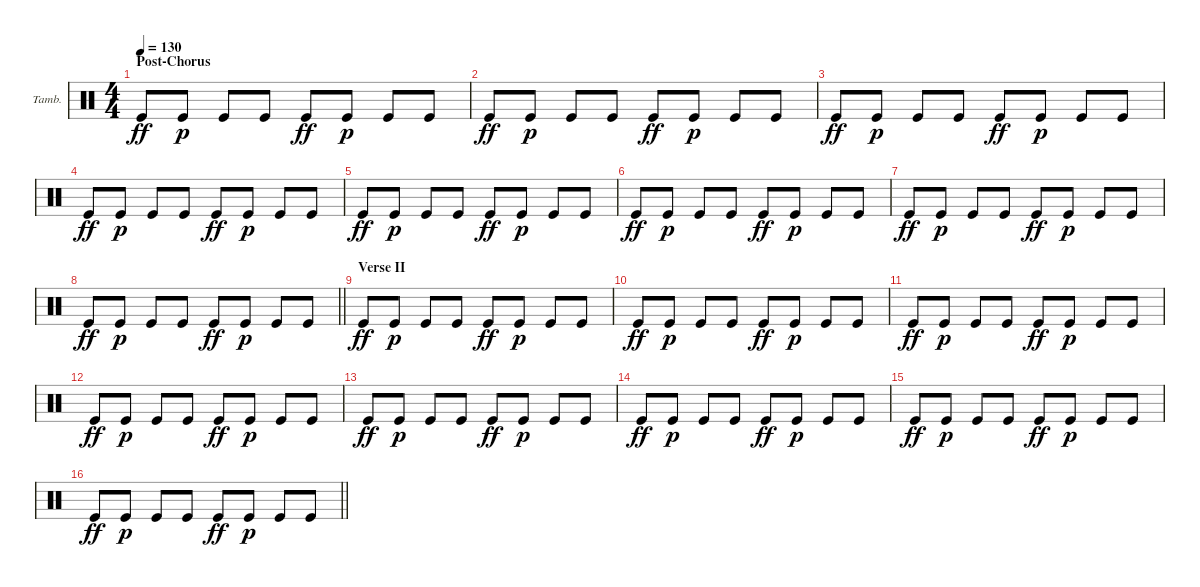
\bracketExtendMode groupsimilarinstruments
\firstSystemTrackNameOrientation horizontal
\otherSystemsTrackNameOrientation horizontal
\track ("Tambourine" "Tamb.") {instrument percussion}
\staff {score}
\articulation defaults
\ts (4 4)
\section ("" "Post-Chorus")
\tempo 130
\clef neutral
\ks c "Kick (hit)".8{dy ff} "Kick (hit)".8{dy p} "Kick (hit)".8 "Kick (hit)".8 "Kick (hit)".8{dy ff} "Kick (hit)".8{dy p} "Kick (hit)".8 "Kick (hit)".8
|
"Kick (hit)".8{dy ff} "Kick (hit)".8{dy p} "Kick (hit)".8 "Kick (hit)".8 "Kick (hit)".8{dy ff} "Kick (hit)".8{dy p} "Kick (hit)".8 "Kick (hit)".8 |
"Kick (hit)".8{dy ff} "Kick (hit)".8{dy p} "Kick (hit)".8 "Kick (hit)".8 "Kick (hit)".8{dy ff} "Kick (hit)".8{dy p} "Kick (hit)".8 "Kick (hit)".8 |
"Kick (hit)".8{dy ff} "Kick (hit)".8{dy p} "Kick (hit)".8 "Kick (hit)".8 "Kick (hit)".8{dy ff} "Kick (hit)".8{dy p} "Kick (hit)".8 "Kick (hit)".8 |
"Kick (hit)".8{dy ff} "Kick (hit)".8{dy p} "Kick (hit)".8 "Kick (hit)".8 "Kick (hit)".8{dy ff} "Kick (hit)".8{dy p} "Kick (hit)".8 "Kick (hit)".8 |
"Kick (hit)".8{dy ff} "Kick (hit)".8{dy p} "Kick (hit)".8 "Kick (hit)".8 "Kick (hit)".8{dy ff} "Kick (hit)".8{dy p} "Kick (hit)".8 "Kick (hit)".8 |
"Kick (hit)".8{dy ff} "Kick (hit)".8{dy p} "Kick (hit)".8 "Kick (hit)".8 "Kick (hit)".8{dy ff} "Kick (hit)".8{dy p} "Kick (hit)".8 "Kick (hit)".8 |
\barLineRight lightlight "Kick (hit)".8{dy ff} "Kick (hit)".8{dy p} "Kick (hit)".8 "Kick (hit)".8 "Kick (hit)".8{dy ff} "Kick (hit)".8{dy p} "Kick (hit)".8 "Kick (hit)".8
|
\section ("" "Verse II")
"Kick (hit)".8{dy ff} "Kick (hit)".8{dy p} "Kick (hit)".8 "Kick (hit)".8 "Kick (hit)".8{dy ff} "Kick (hit)".8{dy p} "Kick (hit)".8 "Kick (hit)".8 |
"Kick (hit)".8{dy ff} "Kick (hit)".8{dy p} "Kick (hit)".8 "Kick (hit)".8 "Kick (hit)".8{dy ff} "Kick (hit)".8{dy p} "Kick (hit)".8 "Kick (hit)".8 |
"Kick (hit)".8{dy ff} "Kick (hit)".8{dy p} "Kick (hit)".8 "Kick (hit)".8 "Kick (hit)".8{dy ff} "Kick (hit)".8{dy p} "Kick (hit)".8 "Kick (hit)".8 |
"Kick (hit)".8{dy ff} "Kick (hit)".8{dy p} "Kick (hit)".8 "Kick (hit)".8 "Kick (hit)".8{dy ff} "Kick (hit)".8{dy p} "Kick (hit)".8 "Kick (hit)".8 |
"Kick (hit)".8{dy ff} "Kick (hit)".8{dy p} "Kick (hit)".8 "Kick (hit)".8 "Kick (hit)".8{dy ff} "Kick (hit)".8{dy p} "Kick (hit)".8 "Kick (hit)".8 |
"Kick (hit)".8{dy ff} "Kick (hit)".8{dy p} "Kick (hit)".8 "Kick (hit)".8 "Kick (hit)".8{dy ff} "Kick (hit)".8{dy p} "Kick (hit)".8 "Kick (hit)".8 |
"Kick (hit)".8{dy ff} "Kick (hit)".8{dy p} "Kick (hit)".8 "Kick (hit)".8 "Kick (hit)".8{dy ff} "Kick (hit)".8{dy p} "Kick (hit)".8 "Kick (hit)".8 |
\barLineRight lightlight "Kick (hit)".8{dy ff} "Kick (hit)".8{dy p} "Kick (hit)".8 "Kick (hit)".8 "Kick (hit)".8{dy ff} "Kick (hit)".8{dy p} "Kick (hit)".8 "Kick (hit)".8
